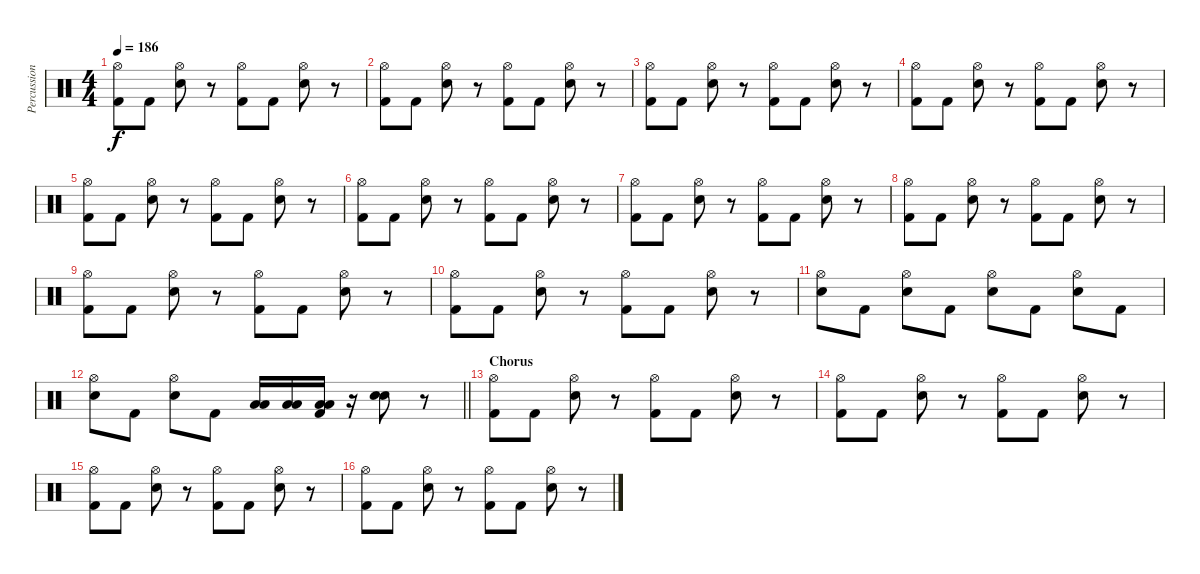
\track ("Percussion" "Percussion") {instrument percussion}
\staff {score}
\articulation defaults
\ts (4 4)
\tempo 186
\clef neutral
\ks c
("Kick (hit) 2" "Hi-Hat (open)").8{dy f} "Kick (hit) 2".8 ("Electric Snare (hit)" "Hi-Hat (open)").8 r.8 ("Kick (hit) 2" "Hi-Hat (open)").8 "Kick (hit) 2".8 ("Electric Snare (hit)" "Hi-Hat (open)").8 r.8 |
("Kick (hit) 2" "Hi-Hat (open)").8 "Kick (hit) 2".8 ("Electric Snare (hit)" "Hi-Hat (open)").8 r.8 ("Kick (hit) 2" "Hi-Hat (open)").8 "Kick (hit) 2".8 ("Electric Snare (hit)" "Hi-Hat (open)").8 r.8 |
("Kick (hit) 2" "Hi-Hat (open)").8 "Kick (hit) 2".8 ("Electric Snare (hit)" "Hi-Hat (open)").8 r.8 ("Kick (hit) 2" "Hi-Hat (open)").8 "Kick (hit) 2".8 ("Electric Snare (hit)" "Hi-Hat (open)").8 r.8 |
("Kick (hit) 2" "Hi-Hat (open)").8 "Kick (hit) 2".8 ("Electric Snare (hit)" "Hi-Hat (open)").8 r.8 ("Kick (hit) 2" "Hi-Hat (open)").8 "Kick (hit) 2".8 ("Electric Snare (hit)" "Hi-Hat (open)").8 r.8 |
("Kick (hit) 2" "Hi-Hat (open)").8 "Kick (hit) 2".8 ("Electric Snare (hit)" "Hi-Hat (open)").8 r.8 ("Kick (hit) 2" "Hi-Hat (open)").8 "Kick (hit) 2".8 ("Electric Snare (hit)" "Hi-Hat (open)").8 r.8 |
("Kick (hit) 2" "Hi-Hat (open)").8 "Kick (hit) 2".8 ("Electric Snare (hit)" "Hi-Hat (open)").8 r.8 ("Kick (hit) 2" "Hi-Hat (open)").8 "Kick (hit) 2".8 ("Electric Snare (hit)" "Hi-Hat (open)").8 r.8 |
("Kick (hit) 2" "Hi-Hat (open)").8 "Kick (hit) 2".8 ("Electric Snare (hit)" "Hi-Hat (open)").8 r.8 ("Kick (hit) 2" "Hi-Hat (open)").8 "Kick (hit) 2".8 ("Electric Snare (hit)" "Hi-Hat (open)").8 r.8 |
("Kick (hit) 2" "Hi-Hat (open)").8 "Kick (hit) 2".8 ("Electric Snare (hit)" "Hi-Hat (open)").8 r.8 ("Kick (hit) 2" "Hi-Hat (open)").8 "Kick (hit) 2".8 ("Electric Snare (hit)" "Hi-Hat (open)").8 r.8 |
("Kick (hit) 2" "Hi-Hat (open)").8 "Kick (hit) 2".8 ("Electric Snare (hit)" "Hi-Hat (open)").8 r.8 ("Kick (hit) 2" "Hi-Hat (open)").8 "Kick (hit) 2".8 ("Electric Snare (hit)" "Hi-Hat (open)").8 r.8 |
("Kick (hit) 2" "Hi-Hat (open)").8 "Kick (hit) 2".8 ("Electric Snare (hit)" "Hi-Hat (open)").8 r.8 ("Kick (hit) 2" "Hi-Hat (open)").8 "Kick (hit) 2".8 ("Electric Snare (hit)" "Hi-Hat (open)").8 r.8 |
("Electric Snare (hit)" "Hi-Hat (open)").8 "Kick (hit) 2".8 ("Electric Snare (hit)" "Hi-Hat (open)").8 "Kick (hit) 2".8 ("Electric Snare (hit)" "Hi-Hat (open)").8 "Kick (hit) 2".8 ("Electric Snare (hit)" "Hi-Hat (open)").8 "Kick (hit) 2".8 |
\barLineRight lightlight
("Electric Snare (hit)" "Hi-Hat (open)").8 "Kick (hit) 2".8 ("Electric Snare (hit)" "Hi-Hat (open)").8 "Kick (hit) 2".8 ("Low Floor Tom (hit)" "Low Floor Tom (hit)").16 ("Low Floor Tom (hit)" "Low Floor Tom (hit)").16 ("Kick (hit) 2" "Low Floor Tom (hit)" "Low Floor Tom (hit)").16 r.16 ("Electric Snare (hit)" "Electric Snare (hit)").8 r.8 |
\section ("" "Chorus")
("Kick (hit) 2" "Hi-Hat (open)").8 "Kick (hit) 2".8 ("Electric Snare (hit)" "Hi-Hat (open)").8 r.8 ("Kick (hit) 2" "Hi-Hat (open)").8 "Kick (hit) 2".8 ("Electric Snare (hit)" "Hi-Hat (open)").8 r.8 |
("Kick (hit) 2" "Hi-Hat (open)").8 "Kick (hit) 2".8 ("Electric Snare (hit)" "Hi-Hat (open)").8 r.8 ("Kick (hit) 2" "Hi-Hat (open)").8 "Kick (hit) 2".8 ("Electric Snare (hit)" "Hi-Hat (open)").8 r.8 |
("Kick (hit) 2" "Hi-Hat (open)").8 "Kick (hit) 2".8 ("Electric Snare (hit)" "Hi-Hat (open)").8 r.8 ("Kick (hit) 2" "Hi-Hat (open)").8 "Kick (hit) 2".8 ("Electric Snare (hit)" "Hi-Hat (open)").8 r.8 |
("Kick (hit) 2" "Hi-Hat (open)").8 "Kick (hit) 2".8 ("Electric Snare (hit)" "Hi-Hat (open)").8 r.8 ("Kick (hit) 2" "Hi-Hat (open)").8 "Kick (hit) 2".8 ("Electric Snare (hit)" "Hi-Hat (open)").8 r.8
